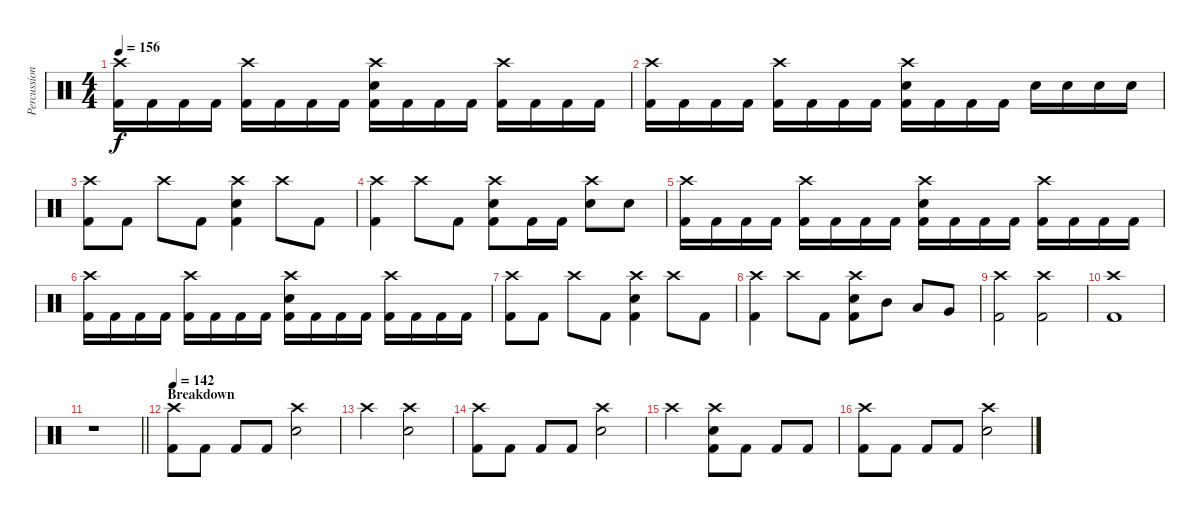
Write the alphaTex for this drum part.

\track ("Percussion" "Percussion") {instrument percussion}
\staff {score}
\articulation defaults
\ts (4 4)
\tempo 156
\clef neutral
\ks c
("Crash high (hit)" "Kick (hit) 2").16{dy f} "Kick (hit) 2".16 "Kick (hit) 2".16 "Kick (hit) 2".16 ("Crash high (hit)" "Kick (hit) 2").16 "Kick (hit) 2".16 "Kick (hit) 2".16 "Kick (hit) 2".16 ("Crash high (hit)" "Electric Snare (hit)" "Kick (hit) 2").16 "Kick (hit) 2".16 "Kick (hit) 2".16 "Kick (hit) 2".16 ("Crash high (hit)" "Kick (hit) 2").16 "Kick (hit) 2".16 "Kick (hit) 2".16 "Kick (hit) 2".16 |
("Crash high (hit)" "Kick (hit) 2").16 "Kick (hit) 2".16 "Kick (hit) 2".16 "Kick (hit) 2".16 ("Crash high (hit)" "Kick (hit) 2").16 "Kick (hit) 2".16 "Kick (hit) 2".16 "Kick (hit) 2".16 ("Crash high (hit)" "Electric Snare (hit)" "Kick (hit) 2").16 "Kick (hit) 2".16 "Kick (hit) 2".16 "Kick (hit) 2".16 "Electric Snare (hit)".16 "Electric Snare (hit)".16 "Electric Snare (hit)".16 "Electric Snare (hit)".16 |
("Crash high (hit)" "Kick (hit) 2").8 "Kick (hit) 2".8 "Crash high (hit)".8 "Kick (hit) 2".8 ("Crash high (hit)" "Electric Snare (hit)" "Kick (hit) 2").4 "Crash high (hit)".8 "Kick (hit) 2".8 |
("Crash high (hit)" "Kick (hit) 2").4 "Crash high (hit)".8 "Kick (hit) 2".8 ("Crash high (hit)" "Electric Snare (hit)" "Kick (hit) 2").8 "Kick (hit) 2".16 "Kick (hit) 2".16 ("Crash high (hit)" "Electric Snare (hit)").8 "Electric Snare (hit)".8 |
("Crash high (hit)" "Kick (hit) 2").16 "Kick (hit) 2".16 "Kick (hit) 2".16 "Kick (hit) 2".16 ("Crash high (hit)" "Kick (hit) 2").16 "Kick (hit) 2".16 "Kick (hit) 2".16 "Kick (hit) 2".16 ("Crash high (hit)" "Electric Snare (hit)" "Kick (hit) 2").16 "Kick (hit) 2".16 "Kick (hit) 2".16 "Kick (hit) 2".16 ("Crash high (hit)" "Kick (hit) 2").16 "Kick (hit) 2".16 "Kick (hit) 2".16 "Kick (hit) 2".16 |
("Crash high (hit)" "Kick (hit) 2").16 "Kick (hit) 2".16 "Kick (hit) 2".16 "Kick (hit) 2".16 ("Crash high (hit)" "Kick (hit) 2").16 "Kick (hit) 2".16 "Kick (hit) 2".16 "Kick (hit) 2".16 ("Crash high (hit)" "Electric Snare (hit)" "Kick (hit) 2").16 "Kick (hit) 2".16 "Kick (hit) 2".16 "Kick (hit) 2".16 ("Crash high (hit)" "Kick (hit) 2").16 "Kick (hit) 2".16 "Kick (hit) 2".16 "Kick (hit) 2".16 |
("Crash high (hit)" "Kick (hit) 2").8 "Kick (hit) 2".8 "Crash high (hit)".8 "Kick (hit) 2".8 ("Crash high (hit)" "Electric Snare (hit)" "Kick (hit) 2").4 "Crash high (hit)".8 "Kick (hit) 2".8 |
("Crash high (hit)" "Kick (hit) 2").4 "Crash high (hit)".8 "Kick (hit) 2".8 ("Crash high (hit)" "Electric Snare (hit)" "Kick (hit) 2").8 "Mid Tom (hit)".8 "Low Tom (hit)".8 "Very Low Tom (hit)".8 |
("Crash high (hit)" "Kick (hit) 2").2 ("Crash high (hit)" "Kick (hit) 2").2 |
("Crash high (hit)" "Kick (hit) 2").1 |
\barLineRight lightlight
r.1 |
\section ("" "Breakdown")
\tempo 142
("Crash high (hit)" "Kick (hit) 2").8 "Kick (hit) 2".8 "Kick (hit) 2".8 "Kick (hit) 2".8 ("Crash high (hit)" "Electric Snare (hit)").2 |
"Crash high (hit)".2 ("Crash high (hit)" "Electric Snare (hit)").2 |
("Crash high (hit)" "Kick (hit) 2").8 "Kick (hit) 2".8 "Kick (hit) 2".8 "Kick (hit) 2".8 ("Crash high (hit)" "Electric Snare (hit)").2 |
"Crash high (hit)".2 ("Crash high (hit)" "Electric Snare (hit)" "Kick (hit) 2").8 "Kick (hit) 2".8 "Kick (hit) 2".8 "Kick (hit) 2".8 |
("Crash high (hit)" "Kick (hit) 2").8 "Kick (hit) 2".8 "Kick (hit) 2".8 "Kick (hit) 2".8 ("Crash high (hit)" "Electric Snare (hit)").2
